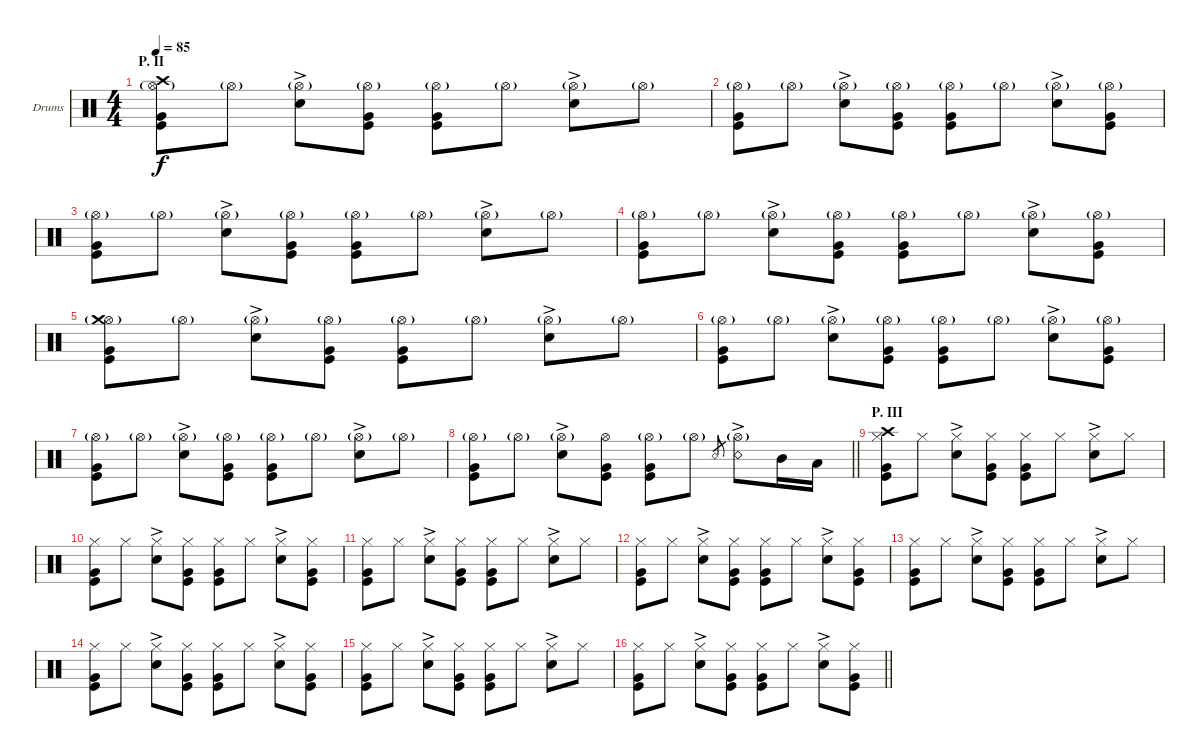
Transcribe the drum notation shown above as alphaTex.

\bracketExtendMode groupsimilarinstruments
\firstSystemTrackNameOrientation horizontal
\otherSystemsTrackNameOrientation horizontal
\track ("Drumkit" "Drums") {instrument percussion}
\staff {score}
\articulation defaults
\ts (4 4)
\section ("" "P. II")
\tempo 85
\clef neutral
\ks c
("Hi-Hat (open)"{g} "Kick (hit)" "Crash high (hit)" "Very Low Tom (hit)").8{dy f} "Hi-Hat (open)"{g}.8 ("Hi-Hat (open)"{g} "Snare (hit) 2"{ac}).8 ("Hi-Hat (open)"{g} "Kick (hit)" "Very Low Tom (hit)").8 ("Hi-Hat (open)"{g} "Kick (hit)" "Very Low Tom (hit)").8 "Hi-Hat (open)"{g}.8 ("Hi-Hat (open)"{g} "Snare (hit) 2"{ac}).8 "Hi-Hat (open)"{g}.8 |
("Hi-Hat (open)"{g} "Kick (hit)" "Very Low Tom (hit)").8 "Hi-Hat (open)"{g}.8 ("Hi-Hat (open)"{g} "Snare (hit) 2"{ac}).8 ("Hi-Hat (open)"{g} "Kick (hit)" "Very Low Tom (hit)").8 ("Hi-Hat (open)"{g} "Kick (hit)" "Very Low Tom (hit)").8 "Hi-Hat (open)"{g}.8 ("Hi-Hat (open)"{g} "Snare (hit) 2"{ac}).8 ("Hi-Hat (open)"{g} "Kick (hit)" "Very Low Tom (hit)").8 |
("Hi-Hat (open)"{g} "Kick (hit)" "Very Low Tom (hit)").8 "Hi-Hat (open)"{g}.8 ("Hi-Hat (open)"{g} "Snare (hit) 2"{ac}).8 ("Hi-Hat (open)"{g} "Kick (hit)" "Very Low Tom (hit)").8 ("Hi-Hat (open)"{g} "Kick (hit)" "Very Low Tom (hit)").8 "Hi-Hat (open)"{g}.8 ("Hi-Hat (open)"{g} "Snare (hit) 2"{ac}).8 "Hi-Hat (open)"{g}.8 |
("Hi-Hat (open)"{g} "Kick (hit)" "Very Low Tom (hit)").8 "Hi-Hat (open)"{g}.8 ("Hi-Hat (open)"{g} "Snare (hit) 2"{ac}).8 ("Hi-Hat (open)"{g} "Kick (hit)" "Very Low Tom (hit)").8 ("Hi-Hat (open)"{g} "Kick (hit)" "Very Low Tom (hit)").8 "Hi-Hat (open)"{g}.8 ("Hi-Hat (open)"{g} "Snare (hit) 2"{ac}).8 ("Hi-Hat (open)"{g} "Kick (hit)" "Very Low Tom (hit)").8 |
("Hi-Hat (open)" "Kick (hit)" "Crash medium (hit)"{g} "Very Low Tom (hit)").8 "Hi-Hat (open)"{g}.8 ("Hi-Hat (open)"{g} "Snare (hit) 2"{ac}).8 ("Hi-Hat (open)"{g} "Kick (hit)" "Very Low Tom (hit)").8 ("Hi-Hat (open)"{g} "Kick (hit)" "Very Low Tom (hit)").8 "Hi-Hat (open)"{g}.8 ("Hi-Hat (open)"{g} "Snare (hit) 2"{ac}).8 "Hi-Hat (open)"{g}.8 |
("Hi-Hat (open)"{g} "Kick (hit)" "Very Low Tom (hit)").8 "Hi-Hat (open)"{g}.8 ("Hi-Hat (open)"{g} "Snare (hit) 2"{ac}).8 ("Hi-Hat (open)"{g} "Kick (hit)" "Very Low Tom (hit)").8 ("Hi-Hat (open)"{g} "Kick (hit)" "Very Low Tom (hit)").8 "Hi-Hat (open)"{g}.8 ("Hi-Hat (open)"{g} "Snare (hit) 2"{ac}).8 ("Hi-Hat (open)"{g} "Kick (hit)" "Very Low Tom (hit)").8 |
("Hi-Hat (open)"{g} "Kick (hit)" "Very Low Tom (hit)").8 "Hi-Hat (open)"{g}.8 ("Hi-Hat (open)"{g} "Snare (hit) 2"{ac}).8 ("Hi-Hat (open)"{g} "Kick (hit)" "Very Low Tom (hit)").8 ("Hi-Hat (open)"{g} "Kick (hit)" "Very Low Tom (hit)").8 "Hi-Hat (open)"{g}.8 ("Hi-Hat (open)"{g} "Snare (hit) 2"{ac}).8 "Hi-Hat (open)"{g}.8 |
\barLineRight lightlight
("Hi-Hat (open)"{g} "Kick (hit)" "Very Low Tom (hit)").8 "Hi-Hat (open)"{g}.8 ("Hi-Hat (open)"{g} "Snare (hit) 2"{ac}).8 ("Hi-Hat (open)" "Kick (hit)" "Very Low Tom (hit)").8 ("Hi-Hat (open)"{g} "Kick (hit)" "Very Low Tom (hit)").8 "Hi-Hat (open)"{g}.8 "Snare (rim shot)".8{gr} ("Hi-Hat (open)"{g} "Snare (rim shot)"{ac}).8 "Mid Tom (hit)".16 "Low Tom (hit)".16 |
\section ("" "P. III")
("Hi-Hat (closed)" "Kick (hit)" "Crash high (hit)" "Very Low Tom (hit)").8 "Hi-Hat (closed)".8 ("Hi-Hat (closed)" "Snare (hit) 2"{ac}).8 ("Hi-Hat (closed)" "Kick (hit)" "Very Low Tom (hit)").8 ("Hi-Hat (closed)" "Kick (hit)" "Very Low Tom (hit)").8 "Hi-Hat (closed)".8 ("Hi-Hat (closed)" "Snare (hit) 2"{ac}).8 "Hi-Hat (closed)".8 |
("Hi-Hat (closed)" "Kick (hit)" "Very Low Tom (hit)").8 "Hi-Hat (closed)".8 ("Hi-Hat (closed)" "Snare (hit) 2"{ac}).8 ("Hi-Hat (closed)" "Kick (hit)" "Very Low Tom (hit)").8 ("Hi-Hat (closed)" "Kick (hit)" "Very Low Tom (hit)").8 "Hi-Hat (closed)".8 ("Hi-Hat (closed)" "Snare (hit) 2"{ac}).8 ("Hi-Hat (closed)" "Kick (hit)" "Very Low Tom (hit)").8 |
("Hi-Hat (closed)" "Kick (hit)" "Very Low Tom (hit)").8 "Hi-Hat (closed)".8 ("Hi-Hat (closed)" "Snare (hit) 2"{ac}).8 ("Hi-Hat (closed)" "Kick (hit)" "Very Low Tom (hit)").8 ("Hi-Hat (closed)" "Kick (hit)" "Very Low Tom (hit)").8 "Hi-Hat (closed)".8 ("Hi-Hat (closed)" "Snare (hit) 2"{ac}).8 "Hi-Hat (closed)".8 |
("Hi-Hat (closed)" "Kick (hit)" "Very Low Tom (hit)").8 "Hi-Hat (closed)".8 ("Hi-Hat (closed)" "Snare (hit) 2"{ac}).8 ("Hi-Hat (closed)" "Kick (hit)" "Very Low Tom (hit)").8 ("Hi-Hat (closed)" "Kick (hit)" "Very Low Tom (hit)").8 "Hi-Hat (closed)".8 ("Hi-Hat (closed)" "Snare (hit) 2"{ac}).8 ("Hi-Hat (closed)" "Kick (hit)" "Very Low Tom (hit)").8 |
("Hi-Hat (closed)" "Kick (hit)" "Very Low Tom (hit)").8 "Hi-Hat (closed)".8 ("Hi-Hat (closed)" "Snare (hit) 2"{ac}).8 ("Hi-Hat (closed)" "Kick (hit)" "Very Low Tom (hit)").8 ("Hi-Hat (closed)" "Kick (hit)" "Very Low Tom (hit)").8 "Hi-Hat (closed)".8 ("Hi-Hat (closed)" "Snare (hit) 2"{ac}).8 "Hi-Hat (closed)".8 |
("Hi-Hat (closed)" "Kick (hit)" "Very Low Tom (hit)").8 "Hi-Hat (closed)".8 ("Hi-Hat (closed)" "Snare (hit) 2"{ac}).8 ("Hi-Hat (closed)" "Kick (hit)" "Very Low Tom (hit)").8 ("Hi-Hat (closed)" "Kick (hit)" "Very Low Tom (hit)").8 "Hi-Hat (closed)".8 ("Hi-Hat (closed)" "Snare (hit) 2"{ac}).8 ("Hi-Hat (closed)" "Kick (hit)" "Very Low Tom (hit)").8 |
("Hi-Hat (closed)" "Kick (hit)" "Very Low Tom (hit)").8 "Hi-Hat (closed)".8 ("Hi-Hat (closed)" "Snare (hit) 2"{ac}).8 ("Hi-Hat (closed)" "Kick (hit)" "Very Low Tom (hit)").8 ("Hi-Hat (closed)" "Kick (hit)" "Very Low Tom (hit)").8 "Hi-Hat (closed)".8 ("Hi-Hat (closed)" "Snare (hit) 2"{ac}).8 "Hi-Hat (closed)".8 |
\barLineRight lightlight
("Hi-Hat (closed)" "Kick (hit)" "Very Low Tom (hit)").8 "Hi-Hat (closed)".8 ("Hi-Hat (closed)" "Snare (hit) 2"{ac}).8 ("Hi-Hat (closed)" "Kick (hit)" "Very Low Tom (hit)").8 ("Hi-Hat (closed)" "Kick (hit)" "Very Low Tom (hit)").8 "Hi-Hat (closed)".8 ("Hi-Hat (closed)" "Snare (hit) 2"{ac}).8 ("Hi-Hat (closed)" "Kick (hit)" "Very Low Tom (hit)").8
